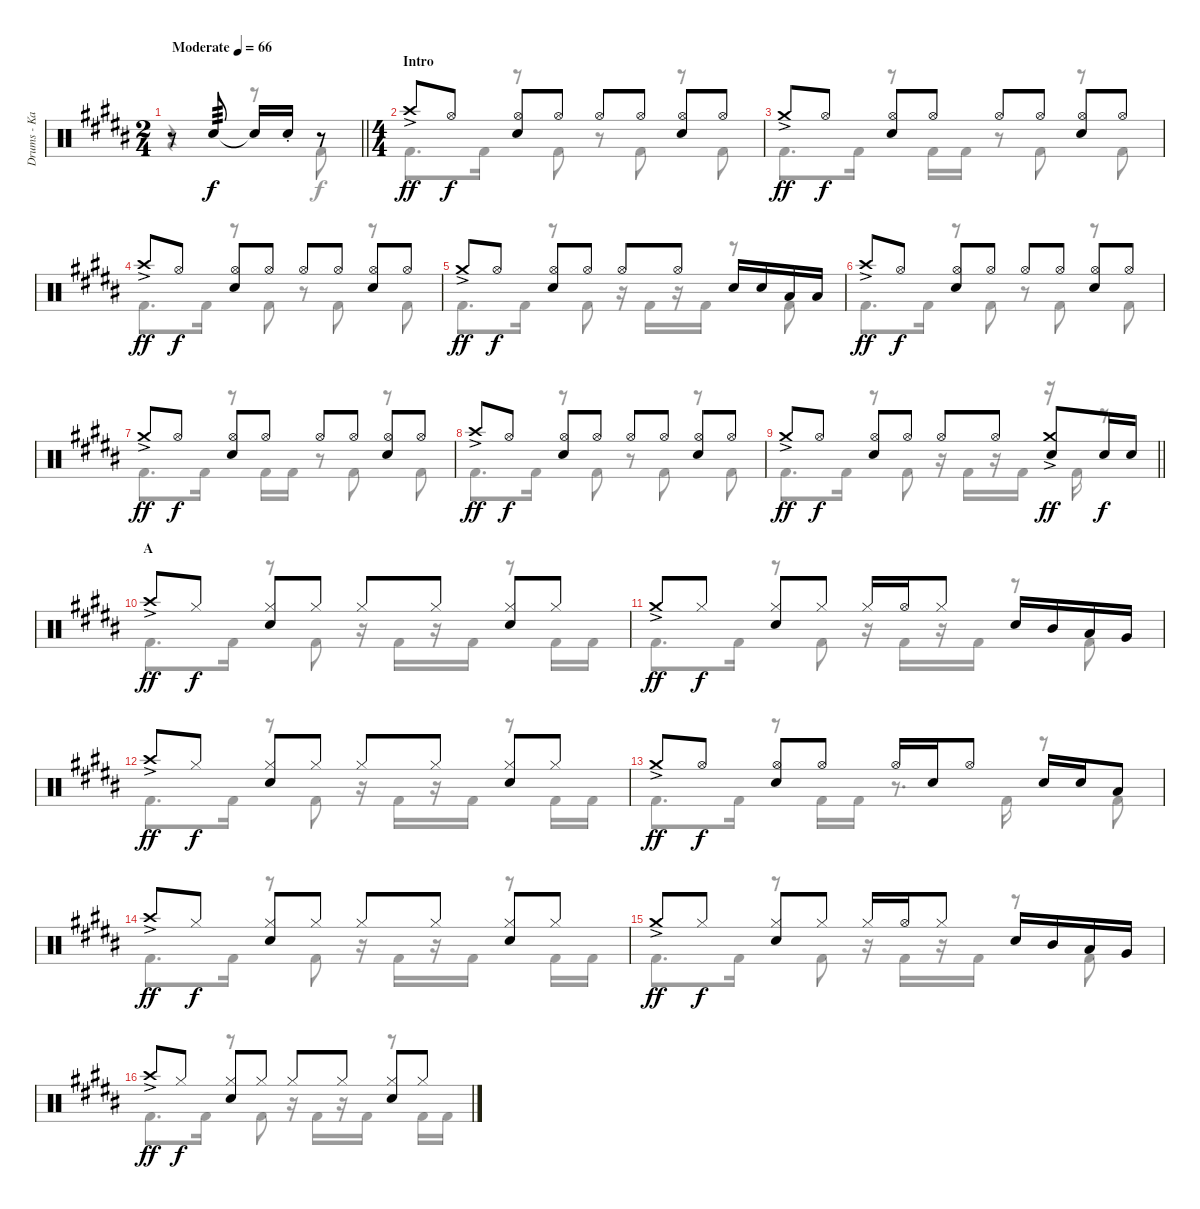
\track ("Drums - Kai" "Drums - Ka") {instrument percussion}
\staff {score}
\articulation defaults
\voice
\ts (2 4)
\tempo (66 "Moderate")
\clef neutral
\barLineRight lightlight
\ks b
r.8{dy f} "Electric Snare (hit)".8{tp 3} "Snare (hit)"{t}.16 "Electric Snare (hit)"{st}.16 r.8 |
\ts (4 4)
\section ("" "Intro")
"Crash high (hit)"{ac}.8{dy ff} "Hi-Hat (open)".8{dy f} ("Hi-Hat (open)" "Electric Snare (hit)").8 "Hi-Hat (open)".8 "Hi-Hat (open)".8 "Hi-Hat (open)".8 ("Hi-Hat (open)" "Electric Snare (hit)").8 "Hi-Hat (open)".8 |
"Crash medium (hit)"{ac}.8{dy ff} "Hi-Hat (open)".8{dy f} ("Hi-Hat (open)" "Electric Snare (hit)").8 "Hi-Hat (open)".8 "Hi-Hat (open)".8 "Hi-Hat (open)".8 ("Hi-Hat (open)" "Electric Snare (hit)").8 "Hi-Hat (open)".8 |
"Crash high (hit)"{ac}.8{dy ff} "Hi-Hat (open)".8{dy f} ("Hi-Hat (open)" "Electric Snare (hit)").8 "Hi-Hat (open)".8 "Hi-Hat (open)".8 "Hi-Hat (open)".8 ("Hi-Hat (open)" "Electric Snare (hit)").8 "Hi-Hat (open)".8 |
"Crash medium (hit)"{ac}.8{dy ff} "Hi-Hat (open)".8{dy f} ("Hi-Hat (open)" "Electric Snare (hit)").8 "Hi-Hat (open)".8 "Hi-Hat (open)".8 "Hi-Hat (open)".8 "Electric Snare (hit)".16 "Electric Snare (hit)".16 "Low Tom (hit)".16 "Low Tom (hit)".16 |
"Crash high (hit)"{ac}.8{dy ff} "Hi-Hat (open)".8{dy f} ("Hi-Hat (open)" "Electric Snare (hit)").8 "Hi-Hat (open)".8 "Hi-Hat (open)".8 "Hi-Hat (open)".8 ("Hi-Hat (open)" "Electric Snare (hit)").8 "Hi-Hat (open)".8 |
"Crash medium (hit)"{ac}.8{dy ff} "Hi-Hat (open)".8{dy f} ("Hi-Hat (open)" "Electric Snare (hit)").8 "Hi-Hat (open)".8 "Hi-Hat (open)".8 "Hi-Hat (open)".8 ("Hi-Hat (open)" "Electric Snare (hit)").8 "Hi-Hat (open)".8 |
"Crash high (hit)"{ac}.8{dy ff} "Hi-Hat (open)".8{dy f} ("Hi-Hat (open)" "Electric Snare (hit)").8 "Hi-Hat (open)".8 "Hi-Hat (open)".8 "Hi-Hat (open)".8 ("Hi-Hat (open)" "Electric Snare (hit)").8 "Hi-Hat (open)".8 |
\barLineRight lightlight "Crash medium (hit)"{ac}.8{dy ff} "Hi-Hat (open)".8{dy f}
("Hi-Hat (open)" "Electric Snare (hit)").8 "Hi-Hat (open)".8 "Hi-Hat (open)".8 "Hi-Hat (open)".8 ("Crash medium (hit)"{ac} "Electric Snare (hit)").8{dy ff} "Electric Snare (hit)".16{dy f} "Electric Snare (hit)".16 |
\section ("" "A")
"Crash high (hit)"{ac}.8{dy ff} "Hi-Hat (closed)".8{dy f} ("Hi-Hat (closed)" "Electric Snare (hit)").8 "Hi-Hat (closed)".8 "Hi-Hat (closed)".8 "Hi-Hat (closed)".8 ("Hi-Hat (closed)" "Electric Snare (hit)").8 "Hi-Hat (closed)".8 |
"Crash medium (hit)"{ac}.8{dy ff} "Hi-Hat (closed)".8{dy f} ("Hi-Hat (closed)" "Electric Snare (hit)").8 "Hi-Hat (closed)".8 "Hi-Hat (closed)".16 "Hi-Hat (open)".16 "Hi-Hat (closed)".8 "Electric Snare (hit)".16 "Mid Tom (hit)".16 "Low Tom (hit)".16 "Very Low Tom (hit)".16 |
"Crash high (hit)"{ac}.8{dy ff} "Hi-Hat (closed)".8{dy f} ("Hi-Hat (closed)" "Electric Snare (hit)").8 "Hi-Hat (closed)".8 "Hi-Hat (closed)".8 "Hi-Hat (closed)".8 ("Hi-Hat (closed)" "Electric Snare (hit)").8 "Hi-Hat (closed)".8 |
"Crash medium (hit)"{ac}.8{dy ff} "Hi-Hat (open)".8{dy f} ("Hi-Hat (open)" "Electric Snare (hit)").8 "Hi-Hat (open)".8 "Hi-Hat (open)".16 "Electric Snare (hit)".16 "Hi-Hat (open)".8 "Electric Snare (hit)".16 "Electric Snare (hit)".16 "Low Tom (hit)".8 |
"Crash high (hit)"{ac}.8{dy ff} "Hi-Hat (closed)".8{dy f} ("Hi-Hat (closed)" "Electric Snare (hit)").8 "Hi-Hat (closed)".8 "Hi-Hat (closed)".8 "Hi-Hat (closed)".8 ("Hi-Hat (closed)" "Electric Snare (hit)").8 "Hi-Hat (closed)".8 |
"Crash medium (hit)"{ac}.8{dy ff} "Hi-Hat (closed)".8{dy f} ("Hi-Hat (closed)" "Electric Snare (hit)").8 "Hi-Hat (closed)".8 "Hi-Hat (closed)".16 "Hi-Hat (open)".16 "Hi-Hat (closed)".8 "Electric Snare (hit)".16 "Mid Tom (hit)".16 "Low Tom (hit)".16 "Very Low Tom (hit)".16 |
"Crash high (hit)"{ac}.8{dy ff} "Hi-Hat (closed)".8{dy f} ("Hi-Hat (closed)" "Electric Snare (hit)").8 "Hi-Hat (closed)".8 "Hi-Hat (closed)".8 "Hi-Hat (closed)".8 ("Hi-Hat (closed)" "Electric Snare (hit)").8 "Hi-Hat (closed)".8
\voice
\clef neutral
\ottava regular
\simile none
\barLineRight lightlight
\ks b
r.4{dy f} r.8 "Kick (hit) 2".8 |
"Kick (hit) 2".8{d} "Kick (hit) 2".16 r.8 "Kick (hit) 2".8 r.8 "Kick (hit) 2".8 r.8 "Kick (hit) 2".8 |
"Kick (hit) 2".8{d} "Kick (hit) 2".16 r.8 "Kick (hit) 2".16 "Kick (hit) 2".16 r.8 "Kick (hit) 2".8 r.8 "Kick (hit) 2".8 |
"Kick (hit) 2".8{d} "Kick (hit) 2".16 r.8 "Kick (hit) 2".8 r.8 "Kick (hit) 2".8 r.8 "Kick (hit) 2".8 |
"Kick (hit) 2".8{d} "Kick (hit) 2".16 r.8 "Kick (hit) 2".8 r.16 "Kick (hit) 2".16 r.16 "Kick (hit) 2".16 r.8 "Kick (hit) 2".8 |
"Kick (hit) 2".8{d} "Kick (hit) 2".16 r.8 "Kick (hit) 2".8 r.8 "Kick (hit) 2".8 r.8 "Kick (hit) 2".8 |
"Kick (hit) 2".8{d} "Kick (hit) 2".16 r.8 "Kick (hit) 2".16 "Kick (hit) 2".16 r.8 "Kick (hit) 2".8 r.8 "Kick (hit) 2".8 |
"Kick (hit) 2".8{d} "Kick (hit) 2".16 r.8 "Kick (hit) 2".8 r.8 "Kick (hit) 2".8 r.8 "Kick (hit) 2".8 |
\barLineRight lightlight "Kick (hit) 2".8{d} "Kick (hit) 2".16
r.8 "Kick (hit) 2".8 r.16 "Kick (hit) 2".16 r.16 "Kick (hit) 2".16 r.16 "Kick (hit) 2".16 r.8 |
"Kick (hit) 2".8{d} "Kick (hit) 2".16 r.8 "Kick (hit) 2".8 r.16 "Kick (hit) 2".16 r.16 "Kick (hit) 2".16 r.8 "Kick (hit) 2".16 "Kick (hit) 2".16 |
"Kick (hit) 2".8{d} "Kick (hit) 2".16 r.8 "Kick (hit) 2".8 r.16 "Kick (hit) 2".16 r.16 "Kick (hit) 2".16 r.8 "Kick (hit) 2".8 |
"Kick (hit) 2".8{d} "Kick (hit) 2".16 r.8 "Kick (hit) 2".8 r.16 "Kick (hit) 2".16 r.16 "Kick (hit) 2".16 r.8 "Kick (hit) 2".16 "Kick (hit) 2".16 |
"Kick (hit) 2".8{d} "Kick (hit) 2".16 r.8 "Kick (hit) 2".16 "Kick (hit) 2".16 r.8{d} "Kick (hit) 2".16 r.8 "Kick (hit) 2".8 |
"Kick (hit) 2".8{d} "Kick (hit) 2".16 r.8 "Kick (hit) 2".8 r.16 "Kick (hit) 2".16 r.16 "Kick (hit) 2".16 r.8 "Kick (hit) 2".16 "Kick (hit) 2".16 |
"Kick (hit) 2".8{d} "Kick (hit) 2".16 r.8 "Kick (hit) 2".8 r.16 "Kick (hit) 2".16 r.16 "Kick (hit) 2".16 r.8 "Kick (hit) 2".8 |
"Kick (hit) 2".8{d} "Kick (hit) 2".16 r.8 "Kick (hit) 2".8 r.16 "Kick (hit) 2".16 r.16 "Kick (hit) 2".16 r.8 "Kick (hit) 2".16 "Kick (hit) 2".16
